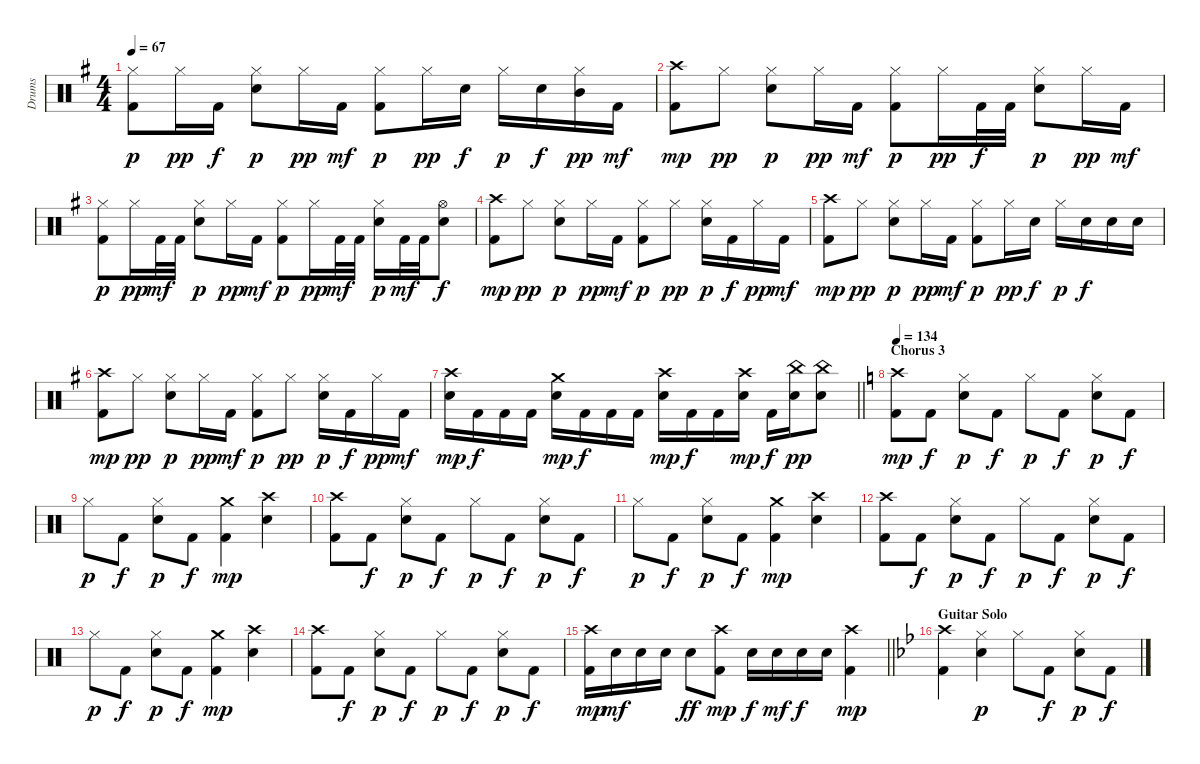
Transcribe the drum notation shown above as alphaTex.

\track ("Drums" "Drums") {instrument percussion}
\staff {score}
\articulation defaults
\ts (4 4)
\tempo 67
\clef neutral
\ks eminor
("Hi-Hat (closed)" "Kick (hit) 2").8{dy p} "Hi-Hat (closed)".16{dy pp} "Kick (hit) 2".16{dy f} ("Hi-Hat (closed)" "Electric Snare (hit)").8{dy p} "Hi-Hat (closed)".16{dy pp} "Kick (hit) 2".16{dy mf} ("Hi-Hat (closed)" "Kick (hit) 2").8{dy p} "Hi-Hat (closed)".16{dy pp} "Electric Snare (hit)".16{dy f} "Hi-Hat (closed)".16{dy p} "Electric Snare (hit)".16{dy f} ("Hi-Hat (closed)" "Mid Tom (hit)").16{dy pp} "Kick (hit) 2".16{dy mf} |
("Crash high (hit)" "Kick (hit) 2").8{dy mp} "Hi-Hat (closed)".8{dy pp} ("Hi-Hat (closed)" "Electric Snare (hit)").8{dy p} "Hi-Hat (closed)".16{dy pp} "Kick (hit) 2".16{dy mf} ("Hi-Hat (closed)" "Kick (hit) 2").8{dy p} "Hi-Hat (closed)".16{dy pp} "Kick (hit) 2".32{dy f} "Kick (hit) 2".32 ("Hi-Hat (closed)" "Electric Snare (hit)").8{dy p} "Hi-Hat (closed)".16{dy pp} "Kick (hit) 2".16{dy mf} |
("Hi-Hat (closed)" "Kick (hit) 2").8{dy p} "Hi-Hat (closed)".16{dy pp} "Kick (hit) 2".32{dy mf} "Kick (hit) 2".32 ("Hi-Hat (closed)" "Electric Snare (hit)").8{dy p} "Hi-Hat (closed)".16{dy pp} "Kick (hit) 2".16{dy mf} ("Hi-Hat (closed)" "Kick (hit) 2").8{dy p} "Hi-Hat (closed)".16{dy pp} "Kick (hit) 2".32{dy mf} "Kick (hit) 2".32 ("Hi-Hat (closed)" "Electric Snare (hit)").16{dy p} "Kick (hit) 2".32{dy mf} "Kick (hit) 2".32 ("Hi-Hat (open)" "Electric Snare (hit)").8{dy f} |
("Crash high (hit)" "Kick (hit) 2").8{dy mp} "Hi-Hat (closed)".8{dy pp} ("Hi-Hat (closed)" "Electric Snare (hit)").8{dy p} "Hi-Hat (closed)".16{dy pp} "Kick (hit) 2".16{dy mf} ("Hi-Hat (closed)" "Kick (hit) 2").8{dy p} "Hi-Hat (closed)".8{dy pp} ("Hi-Hat (closed)" "Electric Snare (hit)").16{dy p} "Kick (hit) 2".16{dy f} "Hi-Hat (closed)".16{dy pp} "Kick (hit) 2".16{dy mf} |
("Crash high (hit)" "Kick (hit) 2").8{dy mp} "Hi-Hat (closed)".8{dy pp} ("Hi-Hat (closed)" "Electric Snare (hit)").8{dy p} "Hi-Hat (closed)".16{dy pp} "Kick (hit) 2".16{dy mf} ("Hi-Hat (closed)" "Kick (hit) 2").8{dy p} "Hi-Hat (closed)".16{dy pp} "Electric Snare (hit)".16{dy f} "Hi-Hat (closed)".16{dy p} "Electric Snare (hit)".16{dy f} "Electric Snare (hit)".16 "Electric Snare (hit)".16 |
("Crash high (hit)" "Kick (hit) 2").8{dy mp} "Hi-Hat (closed)".8{dy pp} ("Hi-Hat (closed)" "Electric Snare (hit)").8{dy p} "Hi-Hat (closed)".16{dy pp} "Kick (hit) 2".16{dy mf} ("Hi-Hat (closed)" "Kick (hit) 2").8{dy p} "Hi-Hat (closed)".8{dy pp} ("Hi-Hat (closed)" "Electric Snare (hit)").16{dy p} "Kick (hit) 2".16{dy f} "Hi-Hat (closed)".16{dy pp} "Kick (hit) 2".16{dy mf} |
\barLineRight lightlight
("Electric Snare (hit)" "Crash high (hit)").16{dy mp} "Kick (hit) 2".16{dy f} "Kick (hit) 2".16 "Kick (hit) 2".16 ("Electric Snare (hit)" "Crash medium (hit)").16{dy mp} "Kick (hit) 2".16{dy f} "Kick (hit) 2".16 "Kick (hit) 2".16 ("Electric Snare (hit)" "Crash high (hit)").16{dy mp} "Kick (hit) 2".16{dy f} "Kick (hit) 2".16 ("Electric Snare (hit)" "Crash high (hit)").16{dy mp} "Kick (hit) 2".16{dy f} ("Electric Snare (hit)" "China (hit)").16{dy pp} ("Electric Snare (hit)" "China (hit)").8 |
\section ("" "Chorus 3")
\tempo 134
\ks aminor
("Kick (hit) 2" "Crash high (hit)").8{dy mp} "Kick (hit) 2".8{dy f} ("Electric Snare (hit)" "Hi-Hat (closed)").8{dy p} "Kick (hit) 2".8{dy f} "Hi-Hat (closed)".8{dy p} "Kick (hit) 2".8{dy f} ("Electric Snare (hit)" "Hi-Hat (closed)").8{dy p} "Kick (hit) 2".8{dy f} |
"Hi-Hat (closed)".8{dy p} "Kick (hit) 2".8{dy f} ("Electric Snare (hit)" "Hi-Hat (closed)").8{dy p} "Kick (hit) 2".8{dy f} ("Kick (hit) 2" "Crash medium (hit)").4{dy mp} ("Electric Snare (hit)" "Crash high (hit)").4 |
("Kick (hit) 2" "Crash high (hit)").8 "Kick (hit) 2".8{dy f} ("Electric Snare (hit)" "Hi-Hat (closed)").8{dy p} "Kick (hit) 2".8{dy f} "Hi-Hat (closed)".8{dy p} "Kick (hit) 2".8{dy f} ("Electric Snare (hit)" "Hi-Hat (closed)").8{dy p} "Kick (hit) 2".8{dy f} |
"Hi-Hat (closed)".8{dy p} "Kick (hit) 2".8{dy f} ("Electric Snare (hit)" "Hi-Hat (closed)").8{dy p} "Kick (hit) 2".8{dy f} ("Kick (hit) 2" "Crash medium (hit)").4{dy mp} ("Electric Snare (hit)" "Crash high (hit)").4 |
("Kick (hit) 2" "Crash high (hit)").8 "Kick (hit) 2".8{dy f} ("Electric Snare (hit)" "Hi-Hat (closed)").8{dy p} "Kick (hit) 2".8{dy f} "Hi-Hat (closed)".8{dy p} "Kick (hit) 2".8{dy f} ("Electric Snare (hit)" "Hi-Hat (closed)").8{dy p} "Kick (hit) 2".8{dy f} |
"Hi-Hat (closed)".8{dy p} "Kick (hit) 2".8{dy f} ("Electric Snare (hit)" "Hi-Hat (closed)").8{dy p} "Kick (hit) 2".8{dy f} ("Kick (hit) 2" "Crash medium (hit)").4{dy mp} ("Electric Snare (hit)" "Crash high (hit)").4 |
("Kick (hit) 2" "Crash high (hit)").8 "Kick (hit) 2".8{dy f} ("Electric Snare (hit)" "Hi-Hat (closed)").8{dy p} "Kick (hit) 2".8{dy f} "Hi-Hat (closed)".8{dy p} "Kick (hit) 2".8{dy f} ("Electric Snare (hit)" "Hi-Hat (closed)").8{dy p} "Kick (hit) 2".8{dy f} |
\barLineRight lightlight
("Kick (hit) 2" "Crash high (hit)").16{dy mp} "Electric Snare (hit)".16{dy mf} "Electric Snare (hit)".16 "Electric Snare (hit)".16 "Electric Snare (hit)".8{dy ff} ("Kick (hit) 2" "Crash high (hit)").8{dy mp} "Electric Snare (hit)".16{dy f} "Electric Snare (hit)".16{dy mf} "Electric Snare (hit)".16{dy f} "Electric Snare (hit)".16 ("Kick (hit) 2" "Crash high (hit)").4{dy mp} |
\section ("" "Guitar Solo")
\ks gminor
("Kick (hit) 2" "Crash high (hit)").4 ("Electric Snare (hit)" "Hi-Hat (closed)").4{dy p} "Hi-Hat (closed)".8 "Kick (hit) 2".8{dy f} ("Electric Snare (hit)" "Hi-Hat (closed)").8{dy p} "Kick (hit) 2".8{dy f}
